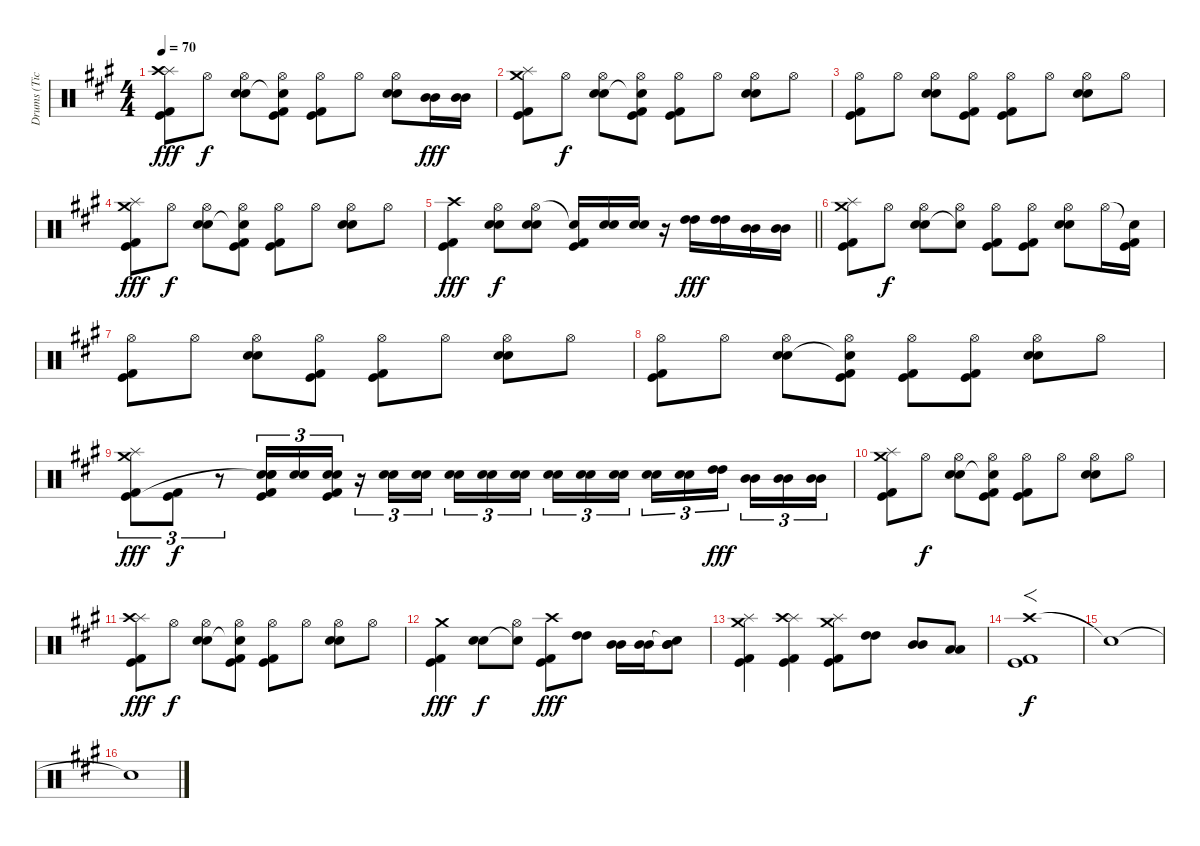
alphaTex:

\track ("Drums (Tico Torres)" "Drums (Tic") {instrument percussion}
\staff {score}
\articulation defaults
\ts (4 4)
\tempo 70
\clef neutral
\ks a
("Splash (hit)" "Crash high (hit)" "Kick (hit)" "Kick (hit) 2").8{dy fff} "Hi-Hat (open)".8{dy f} ("Hi-Hat (open)" "Electric Snare (hit)" "Snare (hit) 2").8 ("Hi-Hat (open)" "Snare (hit)"{t} "Kick (hit)" "Kick (hit) 2").8 ("Hi-Hat (open)" "Kick (hit)" "Kick (hit) 2").8 "Hi-Hat (open)".8 ("Hi-Hat (open)" "Electric Snare (hit)" "Snare (hit) 2").8 ("Mid Tom (hit)" "Mid Tom (hit)").16{dy fff} ("Mid Tom (hit)" "Mid Tom (hit)").16 |
("Splash (hit)" "Crash medium (hit)" "Kick (hit)" "Kick (hit) 2").8 "Hi-Hat (open)".8{dy f} ("Hi-Hat (open)" "Electric Snare (hit)" "Snare (hit) 2").8 ("Hi-Hat (open)" "Snare (hit)"{t} "Kick (hit)" "Kick (hit) 2").8 ("Hi-Hat (open)" "Kick (hit)" "Kick (hit) 2").8 "Hi-Hat (open)".8 ("Hi-Hat (open)" "Electric Snare (hit)" "Snare (hit) 2").8 "Hi-Hat (open)".8 |
("Hi-Hat (open)" "Kick (hit)" "Kick (hit) 2").8 "Hi-Hat (open)".8 ("Hi-Hat (open)" "Electric Snare (hit)" "Snare (hit) 2").8 ("Hi-Hat (open)" "Kick (hit)" "Kick (hit) 2").8 ("Hi-Hat (open)" "Kick (hit)" "Kick (hit) 2").8 "Hi-Hat (open)".8 ("Hi-Hat (open)" "Electric Snare (hit)" "Snare (hit) 2").8 "Hi-Hat (open)".8 |
("Splash (hit)" "Crash medium (hit)" "Kick (hit)" "Kick (hit) 2").8{dy fff} "Hi-Hat (open)".8{dy f} ("Hi-Hat (open)" "Electric Snare (hit)" "Snare (hit) 2").8 ("Hi-Hat (open)" "Snare (hit)"{t} "Kick (hit)" "Kick (hit) 2").8 ("Hi-Hat (open)" "Kick (hit)" "Kick (hit) 2").8 "Hi-Hat (open)".8 ("Hi-Hat (open)" "Electric Snare (hit)" "Snare (hit) 2").8 "Hi-Hat (open)".8 |
\barLineRight lightlight
("Crash high (hit)" "Kick (hit)" "Kick (hit) 2").4{dy fff} ("Hi-Hat (open)" "Electric Snare (hit)" "Snare (hit) 2").8{dy f} ("Hi-Hat (open)" "Electric Snare (hit)" "Snare (hit) 2").8 ("Snare (hit)"{t} "Kick (hit)" "Kick (hit) 2").16 ("Electric Snare (hit)" "Snare (hit) 2").16 ("Electric Snare (hit)" "Snare (hit) 2").16 r.16 ("High Tom (hit)" "High Tom (hit)").16{dy fff} ("High Tom (hit)" "High Tom (hit)").16 ("Mid Tom (hit)" "Mid Tom (hit)").16 ("Mid Tom (hit)" "Mid Tom (hit)").16 |
("Splash (hit)" "Crash medium (hit)" "Kick (hit)" "Kick (hit) 2").8 "Hi-Hat (open)".8{dy f} ("Hi-Hat (open)" "Electric Snare (hit)" "Snare (hit) 2").8 ("Hi-Hat (open)" "Snare (hit)"{t}).8 ("Hi-Hat (open)" "Kick (hit)" "Kick (hit) 2").8 ("Hi-Hat (open)" "Kick (hit)" "Kick (hit) 2").8 ("Hi-Hat (open)" "Electric Snare (hit)" "Snare (hit) 2").8 "Hi-Hat (open)".16 ("Snare (hit)"{t} "Kick (hit)" "Kick (hit) 2").16 |
("Hi-Hat (open)" "Kick (hit)" "Kick (hit) 2").8 "Hi-Hat (open)".8 ("Hi-Hat (open)" "Electric Snare (hit)" "Snare (hit) 2").8 ("Hi-Hat (open)" "Kick (hit)" "Kick (hit) 2").8 ("Hi-Hat (open)" "Kick (hit)" "Kick (hit) 2").8 "Hi-Hat (open)".8 ("Hi-Hat (open)" "Electric Snare (hit)" "Snare (hit) 2").8 "Hi-Hat (open)".8 |
("Hi-Hat (open)" "Kick (hit)" "Kick (hit) 2").8 "Hi-Hat (open)".8 ("Hi-Hat (open)" "Electric Snare (hit)" "Snare (hit) 2").8 ("Hi-Hat (open)" "Snare (hit)"{t} "Kick (hit)" "Kick (hit) 2").8 ("Hi-Hat (open)" "Kick (hit)" "Kick (hit) 2").8 ("Hi-Hat (open)" "Kick (hit)" "Kick (hit) 2").8 ("Hi-Hat (open)" "Electric Snare (hit)" "Snare (hit) 2").8 "Hi-Hat (open)".8 |
("Splash (hit)" "Crash medium (hit)" "Kick (hit)" "Kick (hit) 2").8{tu (3 2) dy fff} ("Kick (hit)" "Kick (hit) 2").8{tu (3 2) dy f} r.8{tu (3 2)} ("Electric Snare (hit)" "Snare (hit) 2" "Snare (hit)"{t} "Kick (hit)" "Kick (hit) 2").16{tu (3 2)} ("Electric Snare (hit)" "Snare (hit) 2").16{tu (3 2)} ("Electric Snare (hit)" "Snare (hit) 2" "Kick (hit)" "Kick (hit) 2").16{tu (3 2)} r.16{tu (3 2)} ("Electric Snare (hit)" "Snare (hit) 2").16{tu (3 2)} ("Electric Snare (hit)" "Snare (hit) 2").16{tu (3 2)} ("Electric Snare (hit)" "Snare (hit) 2").16{tu (3 2)} ("Electric Snare (hit)" "Snare (hit) 2").16{tu (3 2)} ("Electric Snare (hit)" "Snare (hit) 2").16{tu (3 2) beam splitsecondary} ("Electric Snare (hit)" "Snare (hit) 2").16{tu (3 2)} ("Electric Snare (hit)" "Snare (hit) 2").16{tu (3 2)} ("Electric Snare (hit)" "Snare (hit) 2").16{tu (3 2)} ("Electric Snare (hit)" "Snare (hit) 2").16{tu (3 2)} ("Electric Snare (hit)" "Snare (hit) 2").16{tu (3 2)} ("High Tom (hit)" "High Tom (hit)").16{tu (3 2) dy fff beam splitsecondary} ("Mid Tom (hit)" "Mid Tom (hit)").16{tu (3 2)} ("Mid Tom (hit)" "Mid Tom (hit)").16{tu (3 2)} ("Mid Tom (hit)" "Mid Tom (hit)").16{tu (3 2)} |
("Splash (hit)" "Crash medium (hit)" "Kick (hit)" "Kick (hit) 2").8 "Hi-Hat (open)".8{dy f} ("Hi-Hat (open)" "Electric Snare (hit)" "Snare (hit) 2").8 ("Hi-Hat (open)" "Snare (hit)"{t} "Kick (hit)" "Kick (hit) 2").8 ("Hi-Hat (open)" "Kick (hit)" "Kick (hit) 2").8 "Hi-Hat (open)".8 ("Hi-Hat (open)" "Electric Snare (hit)" "Snare (hit) 2").8 "Hi-Hat (open)".8 |
("Splash (hit)" "Crash high (hit)" "Kick (hit)" "Kick (hit) 2").8{dy fff} "Hi-Hat (open)".8{dy f} ("Hi-Hat (open)" "Electric Snare (hit)" "Snare (hit) 2").8 ("Hi-Hat (open)" "Snare (hit)"{t} "Kick (hit)" "Kick (hit) 2").8 ("Hi-Hat (open)" "Kick (hit)" "Kick (hit) 2").8 "Hi-Hat (open)".8 ("Hi-Hat (open)" "Electric Snare (hit)" "Snare (hit) 2").8 "Hi-Hat (open)".8 |
("Crash medium (hit)" "Kick (hit)" "Kick (hit) 2").4{dy fff} ("Electric Snare (hit)" "Snare (hit) 2").8{dy f} ("Hi-Hat (open)" "Snare (hit)"{t}).8 ("Crash high (hit)" "Kick (hit)" "Kick (hit) 2").8{dy fff} ("High Tom (hit)" "High Tom (hit)").8 ("Mid Tom (hit)" "Mid Tom (hit)").16 ("Mid Tom (hit)" "Mid Tom (hit)").16 ("Snare (hit)"{t} "Mid Tom (hit)" "Mid Tom (hit)").8 |
("Splash (hit)" "Crash medium (hit)" "Kick (hit)" "Kick (hit) 2").4 ("Splash (hit)" "Crash high (hit)" "Kick (hit)" "Kick (hit) 2").4 ("Splash (hit)" "Crash medium (hit)" "Kick (hit)" "Kick (hit) 2").8 ("High Tom (hit)" "High Tom (hit)").8 ("Mid Tom (hit)" "Mid Tom (hit)").8 ("Low Tom (hit)" "Low Tom (hit)").8 |
("Crash high (hit)"{tr (49 32)} "Kick (hit)" "Kick (hit) 2").1{f dy f} |
"Snare (hit)"{t}.1 |
"Snare (hit)"{t}.1{volume 0}
